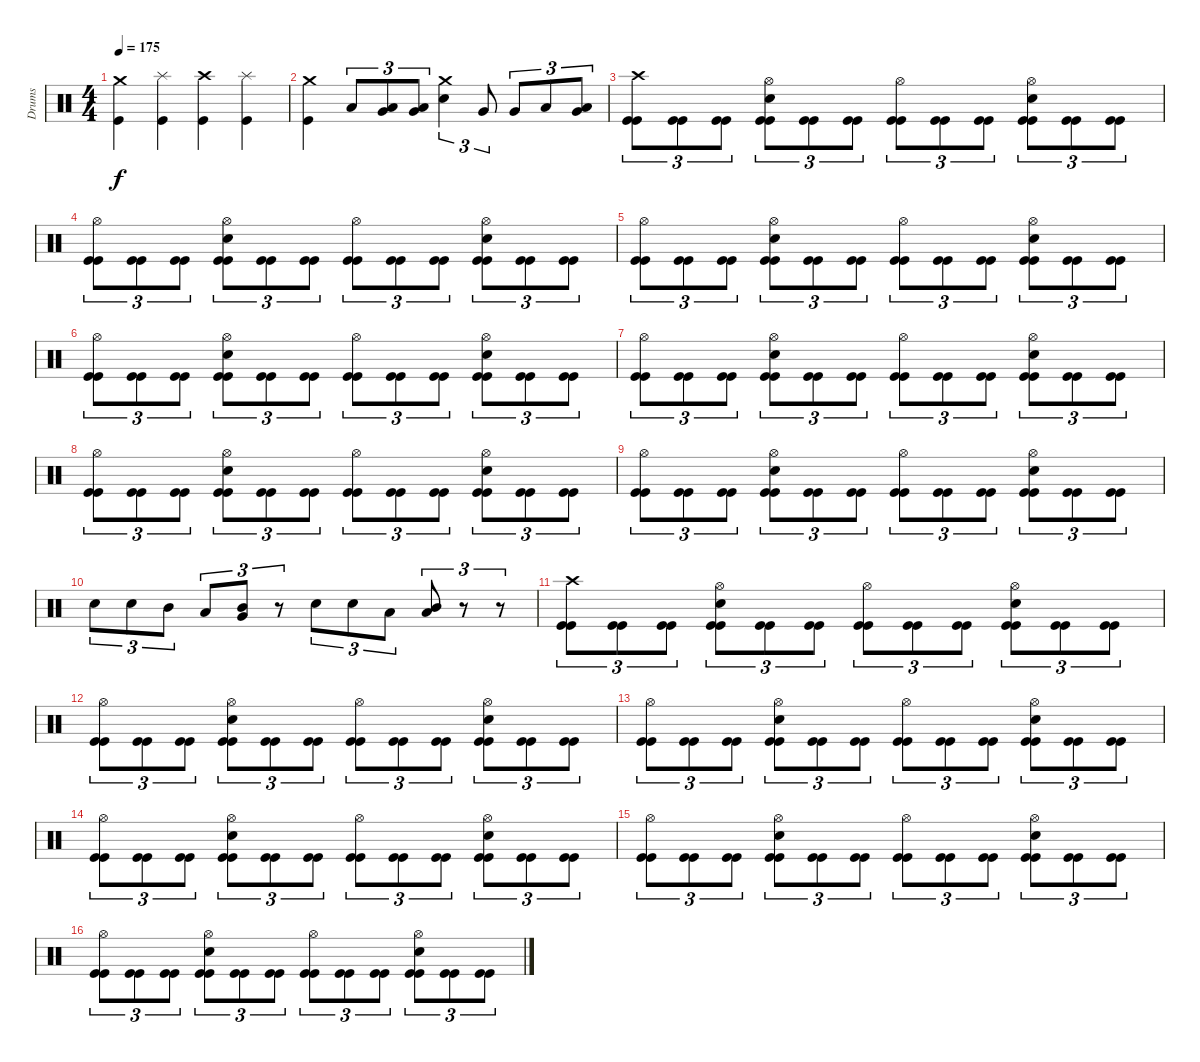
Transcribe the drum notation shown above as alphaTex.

\track ("Drums" "Drums") {instrument percussion}
\staff {score}
\articulation defaults
\ts (4 4)
\tempo 175
\clef neutral
\ks c
("Kick (hit)" "Crash medium (hit)").4{dy f} ("Kick (hit)" "Splash (hit)").4 ("Kick (hit)" "Crash high (hit)").4 ("Kick (hit)" "Splash (hit)").4 |
("Kick (hit)" "Crash medium (hit)").4 "Low Tom (hit)".8{tu (3 2)} ("Very Low Tom (hit)" "Low Tom (hit)").8{tu (3 2)} ("Very Low Tom (hit)" "Low Tom (hit)").8{tu (3 2)} ("Electric Snare (hit)" "Crash medium (hit)").4{tu (3 2)} "Very Low Tom (hit)".8{tu (3 2)} "Very Low Tom (hit)".8{tu (3 2)} "Low Tom (hit)".8{tu (3 2)} ("Low Tom (hit)" "Very Low Tom (hit)").8{tu (3 2)} |
("Kick (hit)" "Kick (hit)" "Crash high (hit)").8{tu (3 2)} ("Kick (hit)" "Kick (hit)").8{tu (3 2)} ("Kick (hit)" "Kick (hit)").8{tu (3 2)} ("Kick (hit)" "Kick (hit)" "Snare (hit) 2" "Hi-Hat (open)").8{tu (3 2)} ("Kick (hit)" "Kick (hit)").8{tu (3 2)} ("Kick (hit)" "Kick (hit)").8{tu (3 2)} ("Kick (hit)" "Kick (hit)" "Hi-Hat (open)").8{tu (3 2)} ("Kick (hit)" "Kick (hit)").8{tu (3 2)} ("Kick (hit)" "Kick (hit)").8{tu (3 2)} ("Kick (hit)" "Kick (hit)" "Snare (hit) 2" "Hi-Hat (open)").8{tu (3 2)} ("Kick (hit)" "Kick (hit)").8{tu (3 2)} ("Kick (hit)" "Kick (hit)").8{tu (3 2)} |
("Kick (hit)" "Kick (hit)" "Hi-Hat (open)").8{tu (3 2)} ("Kick (hit)" "Kick (hit)").8{tu (3 2)} ("Kick (hit)" "Kick (hit)").8{tu (3 2)} ("Kick (hit)" "Kick (hit)" "Snare (hit) 2" "Hi-Hat (open)").8{tu (3 2)} ("Kick (hit)" "Kick (hit)").8{tu (3 2)} ("Kick (hit)" "Kick (hit)").8{tu (3 2)} ("Kick (hit)" "Kick (hit)" "Hi-Hat (open)").8{tu (3 2)} ("Kick (hit)" "Kick (hit)").8{tu (3 2)} ("Kick (hit)" "Kick (hit)").8{tu (3 2)} ("Kick (hit)" "Kick (hit)" "Snare (hit) 2" "Hi-Hat (open)").8{tu (3 2)} ("Kick (hit)" "Kick (hit)").8{tu (3 2)} ("Kick (hit)" "Kick (hit)").8{tu (3 2)} |
("Kick (hit)" "Kick (hit)" "Hi-Hat (open)").8{tu (3 2)} ("Kick (hit)" "Kick (hit)").8{tu (3 2)} ("Kick (hit)" "Kick (hit)").8{tu (3 2)} ("Kick (hit)" "Kick (hit)" "Snare (hit) 2" "Hi-Hat (open)").8{tu (3 2)} ("Kick (hit)" "Kick (hit)").8{tu (3 2)} ("Kick (hit)" "Kick (hit)").8{tu (3 2)} ("Kick (hit)" "Kick (hit)" "Hi-Hat (open)").8{tu (3 2)} ("Kick (hit)" "Kick (hit)").8{tu (3 2)} ("Kick (hit)" "Kick (hit)").8{tu (3 2)} ("Kick (hit)" "Kick (hit)" "Snare (hit) 2" "Hi-Hat (open)").8{tu (3 2)} ("Kick (hit)" "Kick (hit)").8{tu (3 2)} ("Kick (hit)" "Kick (hit)").8{tu (3 2)} |
("Kick (hit)" "Kick (hit)" "Hi-Hat (open)").8{tu (3 2)} ("Kick (hit)" "Kick (hit)").8{tu (3 2)} ("Kick (hit)" "Kick (hit)").8{tu (3 2)} ("Kick (hit)" "Kick (hit)" "Snare (hit) 2" "Hi-Hat (open)").8{tu (3 2)} ("Kick (hit)" "Kick (hit)").8{tu (3 2)} ("Kick (hit)" "Kick (hit)").8{tu (3 2)} ("Kick (hit)" "Kick (hit)" "Hi-Hat (open)").8{tu (3 2)} ("Kick (hit)" "Kick (hit)").8{tu (3 2)} ("Kick (hit)" "Kick (hit)").8{tu (3 2)} ("Kick (hit)" "Kick (hit)" "Snare (hit) 2" "Hi-Hat (open)").8{tu (3 2)} ("Kick (hit)" "Kick (hit)").8{tu (3 2)} ("Kick (hit)" "Kick (hit)").8{tu (3 2)} |
("Kick (hit)" "Kick (hit)" "Hi-Hat (open)").8{tu (3 2)} ("Kick (hit)" "Kick (hit)").8{tu (3 2)} ("Kick (hit)" "Kick (hit)").8{tu (3 2)} ("Kick (hit)" "Kick (hit)" "Snare (hit) 2" "Hi-Hat (open)").8{tu (3 2)} ("Kick (hit)" "Kick (hit)").8{tu (3 2)} ("Kick (hit)" "Kick (hit)").8{tu (3 2)} ("Kick (hit)" "Kick (hit)" "Hi-Hat (open)").8{tu (3 2)} ("Kick (hit)" "Kick (hit)").8{tu (3 2)} ("Kick (hit)" "Kick (hit)").8{tu (3 2)} ("Kick (hit)" "Kick (hit)" "Snare (hit) 2" "Hi-Hat (open)").8{tu (3 2)} ("Kick (hit)" "Kick (hit)").8{tu (3 2)} ("Kick (hit)" "Kick (hit)").8{tu (3 2)} |
("Kick (hit)" "Kick (hit)" "Hi-Hat (open)").8{tu (3 2)} ("Kick (hit)" "Kick (hit)").8{tu (3 2)} ("Kick (hit)" "Kick (hit)").8{tu (3 2)} ("Kick (hit)" "Kick (hit)" "Snare (hit) 2" "Hi-Hat (open)").8{tu (3 2)} ("Kick (hit)" "Kick (hit)").8{tu (3 2)} ("Kick (hit)" "Kick (hit)").8{tu (3 2)} ("Kick (hit)" "Kick (hit)" "Hi-Hat (open)").8{tu (3 2)} ("Kick (hit)" "Kick (hit)").8{tu (3 2)} ("Kick (hit)" "Kick (hit)").8{tu (3 2)} ("Kick (hit)" "Kick (hit)" "Snare (hit) 2" "Hi-Hat (open)").8{tu (3 2)} ("Kick (hit)" "Kick (hit)").8{tu (3 2)} ("Kick (hit)" "Kick (hit)").8{tu (3 2)} |
("Kick (hit)" "Kick (hit)" "Hi-Hat (open)").8{tu (3 2)} ("Kick (hit)" "Kick (hit)").8{tu (3 2)} ("Kick (hit)" "Kick (hit)").8{tu (3 2)} ("Kick (hit)" "Kick (hit)" "Snare (hit) 2" "Hi-Hat (open)").8{tu (3 2)} ("Kick (hit)" "Kick (hit)").8{tu (3 2)} ("Kick (hit)" "Kick (hit)").8{tu (3 2)} ("Kick (hit)" "Kick (hit)" "Hi-Hat (open)").8{tu (3 2)} ("Kick (hit)" "Kick (hit)").8{tu (3 2)} ("Kick (hit)" "Kick (hit)").8{tu (3 2)} ("Kick (hit)" "Kick (hit)" "Snare (hit) 2" "Hi-Hat (open)").8{tu (3 2)} ("Kick (hit)" "Kick (hit)").8{tu (3 2)} ("Kick (hit)" "Kick (hit)").8{tu (3 2)} |
"Snare (hit) 2".8{tu (3 2)} "Snare (hit) 2".8{tu (3 2)} "Mid Tom (hit)".8{tu (3 2)} "Low Tom (hit)".8{tu (3 2)} ("Very Low Tom (hit)" "Mid Tom (hit)").8{tu (3 2)} r.8{tu (3 2)} "Snare (hit) 2".8{tu (3 2)} "Snare (hit) 2".8{tu (3 2)} "Low Tom (hit)".8{tu (3 2)} ("Low Floor Tom (hit)" "Mid Tom (hit)").8{tu (3 2)} r.8{tu (3 2)} r.8{tu (3 2)} |
("Kick (hit)" "Kick (hit)" "Crash high (hit)").8{tu (3 2)} ("Kick (hit)" "Kick (hit)").8{tu (3 2)} ("Kick (hit)" "Kick (hit)").8{tu (3 2)} ("Kick (hit)" "Kick (hit)" "Snare (hit) 2" "Hi-Hat (open)").8{tu (3 2)} ("Kick (hit)" "Kick (hit)").8{tu (3 2)} ("Kick (hit)" "Kick (hit)").8{tu (3 2)} ("Kick (hit)" "Kick (hit)" "Hi-Hat (open)").8{tu (3 2)} ("Kick (hit)" "Kick (hit)").8{tu (3 2)} ("Kick (hit)" "Kick (hit)").8{tu (3 2)} ("Kick (hit)" "Kick (hit)" "Snare (hit) 2" "Hi-Hat (open)").8{tu (3 2)} ("Kick (hit)" "Kick (hit)").8{tu (3 2)} ("Kick (hit)" "Kick (hit)").8{tu (3 2)} |
("Kick (hit)" "Kick (hit)" "Hi-Hat (open)").8{tu (3 2)} ("Kick (hit)" "Kick (hit)").8{tu (3 2)} ("Kick (hit)" "Kick (hit)").8{tu (3 2)} ("Kick (hit)" "Kick (hit)" "Snare (hit) 2" "Hi-Hat (open)").8{tu (3 2)} ("Kick (hit)" "Kick (hit)").8{tu (3 2)} ("Kick (hit)" "Kick (hit)").8{tu (3 2)} ("Kick (hit)" "Kick (hit)" "Hi-Hat (open)").8{tu (3 2)} ("Kick (hit)" "Kick (hit)").8{tu (3 2)} ("Kick (hit)" "Kick (hit)").8{tu (3 2)} ("Kick (hit)" "Kick (hit)" "Snare (hit) 2" "Hi-Hat (open)").8{tu (3 2)} ("Kick (hit)" "Kick (hit)").8{tu (3 2)} ("Kick (hit)" "Kick (hit)").8{tu (3 2)} |
("Kick (hit)" "Kick (hit)" "Hi-Hat (open)").8{tu (3 2)} ("Kick (hit)" "Kick (hit)").8{tu (3 2)} ("Kick (hit)" "Kick (hit)").8{tu (3 2)} ("Kick (hit)" "Kick (hit)" "Snare (hit) 2" "Hi-Hat (open)").8{tu (3 2)} ("Kick (hit)" "Kick (hit)").8{tu (3 2)} ("Kick (hit)" "Kick (hit)").8{tu (3 2)} ("Kick (hit)" "Kick (hit)" "Hi-Hat (open)").8{tu (3 2)} ("Kick (hit)" "Kick (hit)").8{tu (3 2)} ("Kick (hit)" "Kick (hit)").8{tu (3 2)} ("Kick (hit)" "Kick (hit)" "Snare (hit) 2" "Hi-Hat (open)").8{tu (3 2)} ("Kick (hit)" "Kick (hit)").8{tu (3 2)} ("Kick (hit)" "Kick (hit)").8{tu (3 2)} |
("Kick (hit)" "Kick (hit)" "Hi-Hat (open)").8{tu (3 2)} ("Kick (hit)" "Kick (hit)").8{tu (3 2)} ("Kick (hit)" "Kick (hit)").8{tu (3 2)} ("Kick (hit)" "Kick (hit)" "Snare (hit) 2" "Hi-Hat (open)").8{tu (3 2)} ("Kick (hit)" "Kick (hit)").8{tu (3 2)} ("Kick (hit)" "Kick (hit)").8{tu (3 2)} ("Kick (hit)" "Kick (hit)" "Hi-Hat (open)").8{tu (3 2)} ("Kick (hit)" "Kick (hit)").8{tu (3 2)} ("Kick (hit)" "Kick (hit)").8{tu (3 2)} ("Kick (hit)" "Kick (hit)" "Snare (hit) 2" "Hi-Hat (open)").8{tu (3 2)} ("Kick (hit)" "Kick (hit)").8{tu (3 2)} ("Kick (hit)" "Kick (hit)").8{tu (3 2)} |
("Kick (hit)" "Kick (hit)" "Hi-Hat (open)").8{tu (3 2)} ("Kick (hit)" "Kick (hit)").8{tu (3 2)} ("Kick (hit)" "Kick (hit)").8{tu (3 2)} ("Kick (hit)" "Kick (hit)" "Snare (hit) 2" "Hi-Hat (open)").8{tu (3 2)} ("Kick (hit)" "Kick (hit)").8{tu (3 2)} ("Kick (hit)" "Kick (hit)").8{tu (3 2)} ("Kick (hit)" "Kick (hit)" "Hi-Hat (open)").8{tu (3 2)} ("Kick (hit)" "Kick (hit)").8{tu (3 2)} ("Kick (hit)" "Kick (hit)").8{tu (3 2)} ("Kick (hit)" "Kick (hit)" "Snare (hit) 2" "Hi-Hat (open)").8{tu (3 2)} ("Kick (hit)" "Kick (hit)").8{tu (3 2)} ("Kick (hit)" "Kick (hit)").8{tu (3 2)} |
("Kick (hit)" "Kick (hit)" "Hi-Hat (open)").8{tu (3 2)} ("Kick (hit)" "Kick (hit)").8{tu (3 2)} ("Kick (hit)" "Kick (hit)").8{tu (3 2)} ("Kick (hit)" "Kick (hit)" "Snare (hit) 2" "Hi-Hat (open)").8{tu (3 2)} ("Kick (hit)" "Kick (hit)").8{tu (3 2)} ("Kick (hit)" "Kick (hit)").8{tu (3 2)} ("Kick (hit)" "Kick (hit)" "Hi-Hat (open)").8{tu (3 2)} ("Kick (hit)" "Kick (hit)").8{tu (3 2)} ("Kick (hit)" "Kick (hit)").8{tu (3 2)} ("Kick (hit)" "Kick (hit)" "Snare (hit) 2" "Hi-Hat (open)").8{tu (3 2)} ("Kick (hit)" "Kick (hit)").8{tu (3 2)} ("Kick (hit)" "Kick (hit)").8{tu (3 2)}
